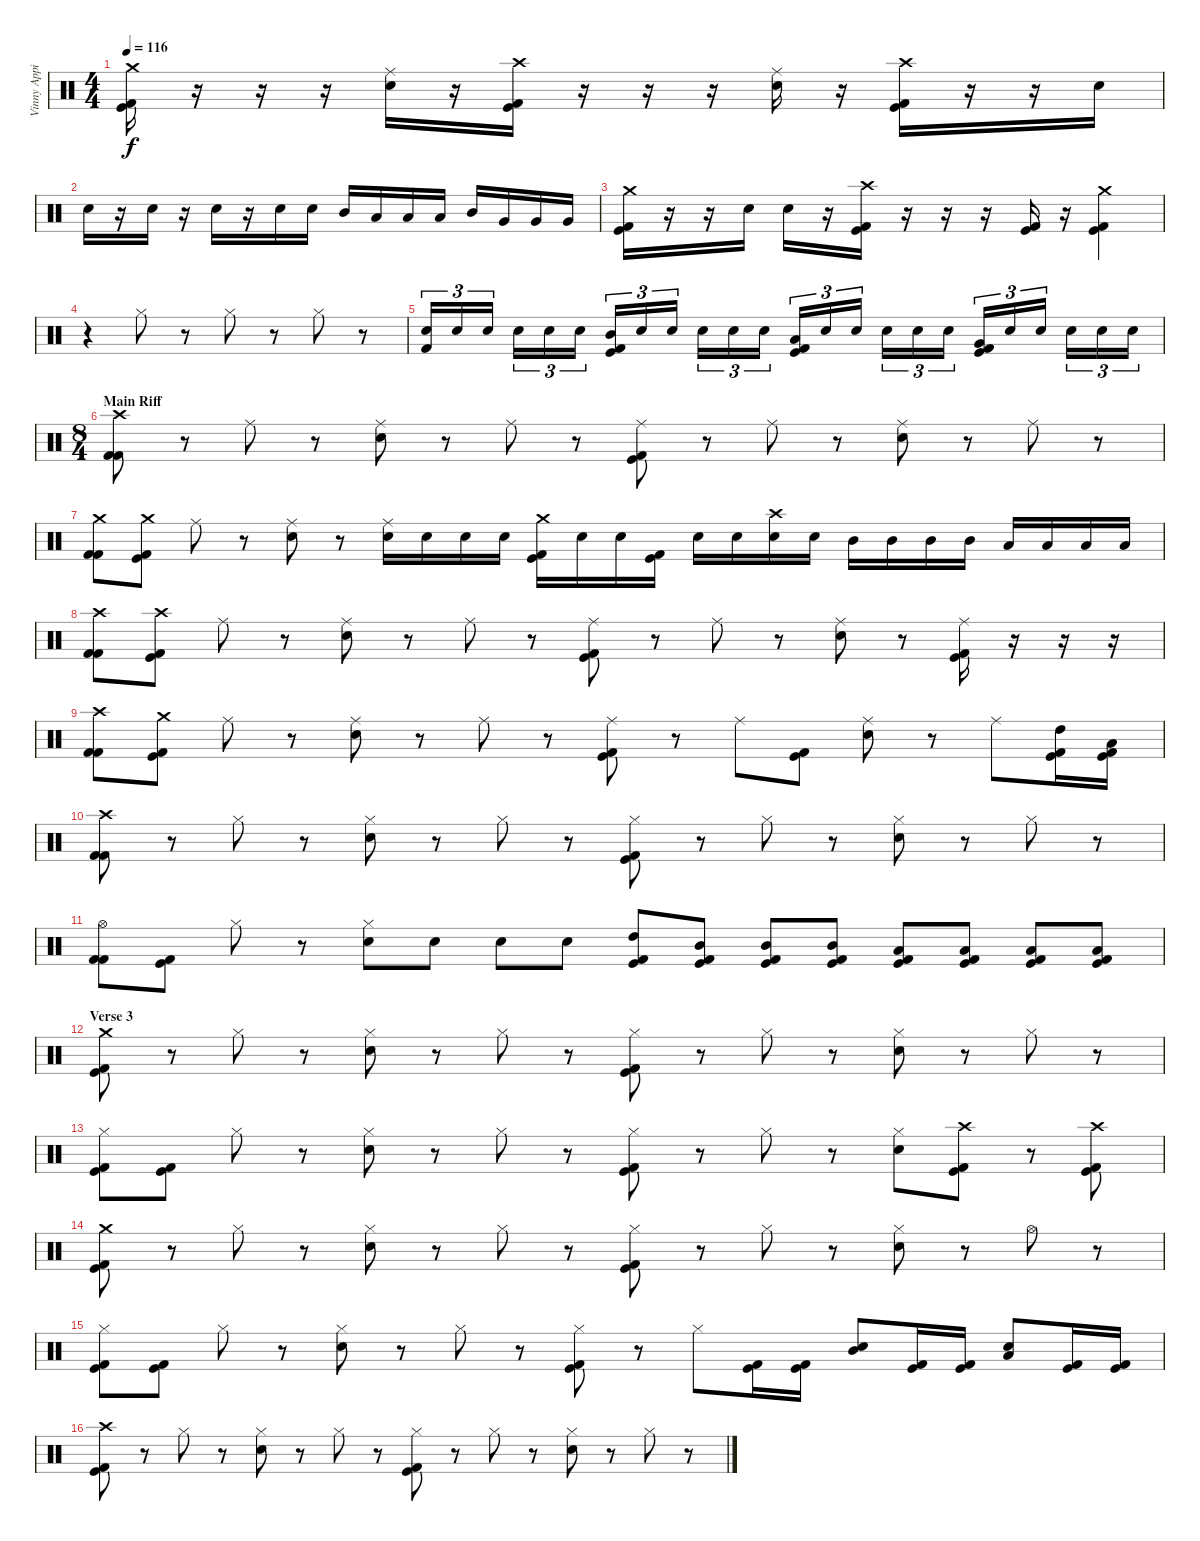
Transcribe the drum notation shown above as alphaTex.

\track ("Vinny Appice" "Vinny Appi") {instrument percussion}
\staff {score}
\articulation defaults
\ts (4 4)
\tempo 116
\clef neutral
\ks c
("Crash medium (hit)" "Kick (hit)" "Kick (hit) 2").16{dy f} r.16 r.16 r.16 ("Ride (middle)" "Snare (hit) 2").16 r.16 ("Crash high (hit)" "Kick (hit)" "Kick (hit) 2").16 r.16 r.16 r.16 ("Ride (middle)" "Snare (hit) 2").16 r.16 ("Crash high (hit)" "Kick (hit)" "Kick (hit) 2").16 r.16 r.16 "Snare (hit) 2".16 |
"Snare (hit) 2".16 r.16 "Snare (hit) 2".16 r.16 "Snare (hit) 2".16 r.16 "Snare (hit) 2".16 "Snare (hit) 2".16 "Mid Tom (hit)".16 "Low Tom (hit)".16 "Low Tom (hit)".16 "Low Tom (hit)".16 "Mid Tom (hit)".16 "Very Low Tom (hit)".16 "Very Low Tom (hit)".16 "Very Low Tom (hit)".16 |
("Crash medium (hit)" "Kick (hit)" "Kick (hit) 2").16 r.16 r.16 "Snare (hit) 2".16 "Snare (hit) 2".16 r.16 ("Crash high (hit)" "Kick (hit)" "Kick (hit) 2").16 r.16 r.16 r.16 ("Kick (hit)" "Kick (hit) 2").16 r.16 ("Crash medium (hit)" "Kick (hit)" "Kick (hit) 2").4 |
r.4 "Hi-Hat (closed)".8 r.8 "Hi-Hat (closed)".8 r.8 "Hi-Hat (closed)".8 r.8 |
("Snare (hit) 2" "Kick (hit) 2").16{tu (3 2)} "Snare (hit) 2".16{tu (3 2)} "Snare (hit) 2".16{tu (3 2)} "Snare (hit) 2".16{tu (3 2)} "Snare (hit) 2".16{tu (3 2)} "Snare (hit) 2".16{tu (3 2)} ("Mid Tom (hit)" "Kick (hit)" "Kick (hit) 2").16{tu (3 2)} "Snare (hit) 2".16{tu (3 2)} "Snare (hit) 2".16{tu (3 2)} "Snare (hit) 2".16{tu (3 2)} "Snare (hit) 2".16{tu (3 2)} "Snare (hit) 2".16{tu (3 2)} ("Low Tom (hit)" "Kick (hit)" "Kick (hit) 2").16{tu (3 2)} "Snare (hit) 2".16{tu (3 2)} "Snare (hit) 2".16{tu (3 2)} "Snare (hit) 2".16{tu (3 2)} "Snare (hit) 2".16{tu (3 2)} "Snare (hit) 2".16{tu (3 2)} ("Very Low Tom (hit)" "Kick (hit)" "Kick (hit) 2").16{tu (3 2)} "Snare (hit) 2".16{tu (3 2)} "Snare (hit) 2".16{tu (3 2)} "Snare (hit) 2".16{tu (3 2)} "Snare (hit) 2".16{tu (3 2)} "Snare (hit) 2".16{tu (3 2)} |
\ts (8 4)
\section ("" "Main Riff")
("Crash high (hit)" "Kick (hit) 2" "Kick (hit) 2").8 r.8 "Ride (middle)".8 r.8 ("Ride (middle)" "Snare (hit) 2").8 r.8 "Ride (middle)".8 r.8 ("Ride (middle)" "Kick (hit)" "Kick (hit) 2").8 r.8 "Ride (middle)".8 r.8 ("Ride (middle)" "Snare (hit) 2").8 r.8 "Ride (middle)".8 r.8 |
("Crash medium (hit)" "Kick (hit) 2" "Kick (hit) 2").8 ("Crash medium (hit)" "Kick (hit)" "Kick (hit) 2").8 "Ride (middle)".8 r.8 ("Ride (middle)" "Snare (hit) 2").8 r.8 ("Ride (middle)" "Snare (hit) 2").16 "Snare (hit) 2".16 "Snare (hit) 2".16 "Snare (hit) 2".16 ("Crash medium (hit)" "Kick (hit)" "Kick (hit) 2").16 "Snare (hit) 2".16 "Snare (hit) 2".16 ("Kick (hit)" "Kick (hit) 2").16 "Snare (hit) 2".16 "Snare (hit) 2".16 ("Crash high (hit)" "Snare (hit) 2").16 "Snare (hit) 2".16 "Mid Tom (hit)".16 "Mid Tom (hit)".16 "Mid Tom (hit)".16 "Mid Tom (hit)".16 "Low Tom (hit)".16 "Low Tom (hit)".16 "Low Tom (hit)".16 "Low Tom (hit)".16 |
("Crash high (hit)" "Kick (hit) 2" "Kick (hit) 2").8 ("Crash high (hit)" "Kick (hit)" "Kick (hit) 2").8 "Ride (middle)".8 r.8 ("Ride (middle)" "Snare (hit) 2").8 r.8 "Ride (middle)".8 r.8 ("Ride (middle)" "Kick (hit)" "Kick (hit) 2").8 r.8 "Ride (middle)".8 r.8 ("Ride (middle)" "Snare (hit) 2").8 r.8 ("Ride (middle)" "Kick (hit)" "Kick (hit) 2").16 r.16 r.16 r.16 |
("Crash high (hit)" "Kick (hit) 2" "Kick (hit) 2").8 ("Crash medium (hit)" "Kick (hit)" "Kick (hit) 2").8 "Ride (middle)".8 r.8 ("Ride (middle)" "Snare (hit) 2").8 r.8 "Ride (middle)".8 r.8 ("Ride (middle)" "Kick (hit)" "Kick (hit) 2").8 r.8 "Ride (middle)".8 ("Kick (hit)" "Kick (hit) 2").8 ("Ride (middle)" "Snare (hit) 2").8 r.8 "Ride (middle)".8 ("High Tom (hit)" "Kick (hit)" "Kick (hit) 2").16 ("Low Tom (hit)" "Kick (hit)" "Kick (hit) 2").16 |
("Crash high (hit)" "Kick (hit) 2" "Kick (hit) 2").8 r.8 "Hi-Hat (closed)".8 r.8 ("Hi-Hat (closed)" "Snare (hit) 2").8 r.8 "Hi-Hat (closed)".8 r.8 ("Hi-Hat (closed)" "Kick (hit)" "Kick (hit) 2").8 r.8 "Hi-Hat (closed)".8 r.8 ("Hi-Hat (closed)" "Snare (hit) 2").8 r.8 "Hi-Hat (closed)".8 r.8 |
("Hi-Hat (open)" "Kick (hit) 2" "Kick (hit) 2").8 ("Kick (hit)" "Kick (hit) 2").8 "Hi-Hat (closed)".8 r.8 ("Hi-Hat (closed)" "Snare (hit) 2").8 "Snare (hit) 2".8 "Snare (hit) 2".8 "Snare (hit) 2".8 ("High Tom (hit)" "Kick (hit)" "Kick (hit) 2").8 ("Mid Tom (hit)" "Kick (hit)" "Kick (hit) 2").8 ("Mid Tom (hit)" "Kick (hit)" "Kick (hit) 2").8 ("Mid Tom (hit)" "Kick (hit)" "Kick (hit) 2").8 ("Low Tom (hit)" "Kick (hit)" "Kick (hit) 2").8 ("Low Tom (hit)" "Kick (hit)" "Kick (hit) 2").8 ("Low Tom (hit)" "Kick (hit)" "Kick (hit) 2").8 ("Low Tom (hit)" "Kick (hit)" "Kick (hit) 2").8 |
\section ("" "Verse 3")
("Crash medium (hit)" "Kick (hit)" "Kick (hit) 2").8 r.8 "Hi-Hat (closed)".8 r.8 ("Hi-Hat (closed)" "Snare (hit) 2").8 r.8 "Hi-Hat (closed)".8 r.8 ("Hi-Hat (closed)" "Kick (hit)" "Kick (hit) 2").8 r.8 "Hi-Hat (closed)".8 r.8 ("Hi-Hat (closed)" "Snare (hit) 2").8 r.8 "Hi-Hat (closed)".8 r.8 |
("Hi-Hat (closed)" "Kick (hit)" "Kick (hit) 2").8 ("Kick (hit)" "Kick (hit) 2").8 "Hi-Hat (closed)".8 r.8 ("Hi-Hat (closed)" "Snare (hit) 2").8 r.8 "Hi-Hat (closed)".8 r.8 ("Hi-Hat (closed)" "Kick (hit)" "Kick (hit) 2").8 r.8 "Hi-Hat (closed)".8 r.8 ("Hi-Hat (closed)" "Snare (hit) 2").8 ("Crash high (hit)" "Kick (hit)" "Kick (hit) 2").8 r.8 ("Crash high (hit)" "Kick (hit)" "Kick (hit) 2").8 |
("Crash medium (hit)" "Kick (hit)" "Kick (hit) 2").8 r.8 "Hi-Hat (closed)".8 r.8 ("Hi-Hat (closed)" "Snare (hit) 2").8 r.8 "Hi-Hat (closed)".8 r.8 ("Hi-Hat (closed)" "Kick (hit)" "Kick (hit) 2").8 r.8 "Hi-Hat (closed)".8 r.8 ("Hi-Hat (closed)" "Snare (hit) 2").8 r.8 "Hi-Hat (open)".8 r.8 |
("Hi-Hat (closed)" "Kick (hit)" "Kick (hit) 2").8 ("Kick (hit)" "Kick (hit) 2").8 "Hi-Hat (closed)".8 r.8 ("Hi-Hat (closed)" "Snare (hit) 2").8 r.8 "Hi-Hat (closed)".8 r.8 ("Hi-Hat (closed)" "Kick (hit)" "Kick (hit) 2").8 r.8 "Hi-Hat (closed)".8 ("Kick (hit)" "Kick (hit) 2").16 ("Kick (hit)" "Kick (hit) 2").16 ("Mid Tom (hit)" "Snare (hit) 2").8 ("Kick (hit)" "Kick (hit) 2").16 ("Kick (hit)" "Kick (hit) 2").16 ("Low Tom (hit)" "Snare (hit) 2").8 ("Kick (hit)" "Kick (hit) 2").16 ("Kick (hit)" "Kick (hit) 2").16 |
("Crash high (hit)" "Kick (hit)" "Kick (hit) 2").8 r.8 "Hi-Hat (closed)".8 r.8 ("Hi-Hat (closed)" "Snare (hit) 2").8 r.8 "Hi-Hat (closed)".8 r.8 ("Hi-Hat (closed)" "Kick (hit)" "Kick (hit) 2").8 r.8 "Hi-Hat (closed)".8 r.8 ("Hi-Hat (closed)" "Snare (hit) 2").8 r.8 "Hi-Hat (closed)".8 r.8
